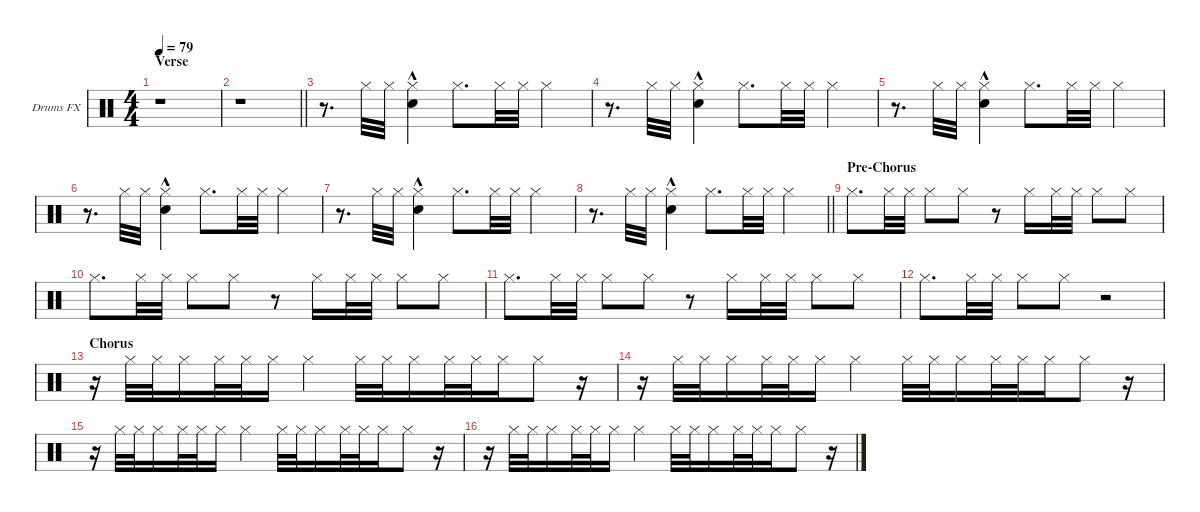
\defaultSystemsLayout 4
\hideDynamics
\bracketExtendMode groupsimilarinstruments
\firstSystemTrackNameOrientation horizontal
\otherSystemsTrackNameOrientation horizontal
\track ("Drumkit FX" "Drums FX") {multiBarRest instrument percussion}
\staff {score}
\articulation defaults
\ts (4 4)
\section ("" "Verse")
\tempo 79
\clef neutral
\ks c
r.1{dy mp} |
\barLineRight lightlight
r.1 |
r.8{d} "Hi-Hat (closed)".32{dy mf beam merge} "Hi-Hat (closed)".32{beam merge} ("Hi-Hat (closed)" "Snare (hit) 2"{hac}).4 "Hi-Hat (closed)".8{d} "Hi-Hat (closed)".32{beam merge} "Hi-Hat (closed)".32{beam merge} "Hi-Hat (closed)".4 |
r.8{d} "Hi-Hat (closed)".32{beam merge} "Hi-Hat (closed)".32{beam merge} ("Hi-Hat (closed)" "Snare (hit) 2"{hac}).4 "Hi-Hat (closed)".8{d} "Hi-Hat (closed)".32{beam merge} "Hi-Hat (closed)".32{beam merge} "Hi-Hat (closed)".4 |
r.8{d} "Hi-Hat (closed)".32{beam merge} "Hi-Hat (closed)".32{beam merge} ("Hi-Hat (closed)" "Snare (hit) 2"{hac}).4 "Hi-Hat (closed)".8{d} "Hi-Hat (closed)".32{beam merge} "Hi-Hat (closed)".32{beam merge} "Hi-Hat (closed)".4 |
r.8{d} "Hi-Hat (closed)".32{beam merge} "Hi-Hat (closed)".32{beam merge} ("Hi-Hat (closed)" "Snare (hit) 2"{hac}).4 "Hi-Hat (closed)".8{d} "Hi-Hat (closed)".32{beam merge} "Hi-Hat (closed)".32{beam merge} "Hi-Hat (closed)".4 |
r.8{d} "Hi-Hat (closed)".32{beam merge} "Hi-Hat (closed)".32{beam merge} ("Hi-Hat (closed)" "Snare (hit) 2"{hac}).4 "Hi-Hat (closed)".8{d} "Hi-Hat (closed)".32{beam merge} "Hi-Hat (closed)".32{beam merge} "Hi-Hat (closed)".4 |
\barLineRight lightlight
r.8{d} "Hi-Hat (closed)".32{beam merge} "Hi-Hat (closed)".32{beam merge} ("Hi-Hat (closed)" "Snare (hit) 2"{hac}).4 "Hi-Hat (closed)".8{d} "Hi-Hat (closed)".32{beam merge} "Hi-Hat (closed)".32{beam merge} "Hi-Hat (closed)".4 |
\section ("" "Pre-Chorus")
"Hi-Hat (closed)".8{d} "Hi-Hat (closed)".32 "Hi-Hat (closed)".32 "Hi-Hat (closed)".8 "Hi-Hat (closed)".8 r.8 "Hi-Hat (closed)".16 "Hi-Hat (closed)".32 "Hi-Hat (closed)".32 "Hi-Hat (closed)".8 "Hi-Hat (closed)".8 |
"Hi-Hat (closed)".8{d} "Hi-Hat (closed)".32 "Hi-Hat (closed)".32 "Hi-Hat (closed)".8 "Hi-Hat (closed)".8 r.8 "Hi-Hat (closed)".16 "Hi-Hat (closed)".32 "Hi-Hat (closed)".32 "Hi-Hat (closed)".8 "Hi-Hat (closed)".8 |
"Hi-Hat (closed)".8{d} "Hi-Hat (closed)".32 "Hi-Hat (closed)".32 "Hi-Hat (closed)".8 "Hi-Hat (closed)".8 r.8 "Hi-Hat (closed)".16 "Hi-Hat (closed)".32 "Hi-Hat (closed)".32 "Hi-Hat (closed)".8 "Hi-Hat (closed)".8 |
"Hi-Hat (closed)".8{d} "Hi-Hat (closed)".32 "Hi-Hat (closed)".32 "Hi-Hat (closed)".8 "Hi-Hat (closed)".8 r.2 |
\section ("" "Chorus")
r.16 "Hi-Hat (closed)".32{dy mp} "Hi-Hat (closed)".32 "Hi-Hat (closed)".16 "Hi-Hat (closed)".32 "Hi-Hat (closed)".32{beam merge} "Hi-Hat (closed)".16 "Hi-Hat (closed)".4 "Hi-Hat (closed)".32 "Hi-Hat (closed)".32 "Hi-Hat (closed)".16 "Hi-Hat (closed)".32 "Hi-Hat (closed)".32{beam merge} "Hi-Hat (closed)".16 "Hi-Hat (closed)".8 r.16 |
r.16 "Hi-Hat (closed)".32 "Hi-Hat (closed)".32 "Hi-Hat (closed)".16 "Hi-Hat (closed)".32 "Hi-Hat (closed)".32{beam merge} "Hi-Hat (closed)".16 "Hi-Hat (closed)".4 "Hi-Hat (closed)".32 "Hi-Hat (closed)".32 "Hi-Hat (closed)".16 "Hi-Hat (closed)".32 "Hi-Hat (closed)".32{beam merge} "Hi-Hat (closed)".16 "Hi-Hat (closed)".8 r.16 |
r.16 "Hi-Hat (closed)".32 "Hi-Hat (closed)".32 "Hi-Hat (closed)".16 "Hi-Hat (closed)".32 "Hi-Hat (closed)".32{beam merge} "Hi-Hat (closed)".16 "Hi-Hat (closed)".4 "Hi-Hat (closed)".32 "Hi-Hat (closed)".32 "Hi-Hat (closed)".16 "Hi-Hat (closed)".32 "Hi-Hat (closed)".32{beam merge} "Hi-Hat (closed)".16 "Hi-Hat (closed)".8 r.16 |
r.16 "Hi-Hat (closed)".32 "Hi-Hat (closed)".32 "Hi-Hat (closed)".16 "Hi-Hat (closed)".32 "Hi-Hat (closed)".32{beam merge} "Hi-Hat (closed)".16 "Hi-Hat (closed)".4 "Hi-Hat (closed)".32 "Hi-Hat (closed)".32 "Hi-Hat (closed)".16 "Hi-Hat (closed)".32 "Hi-Hat (closed)".32{beam merge} "Hi-Hat (closed)".16 "Hi-Hat (closed)".8 r.16
